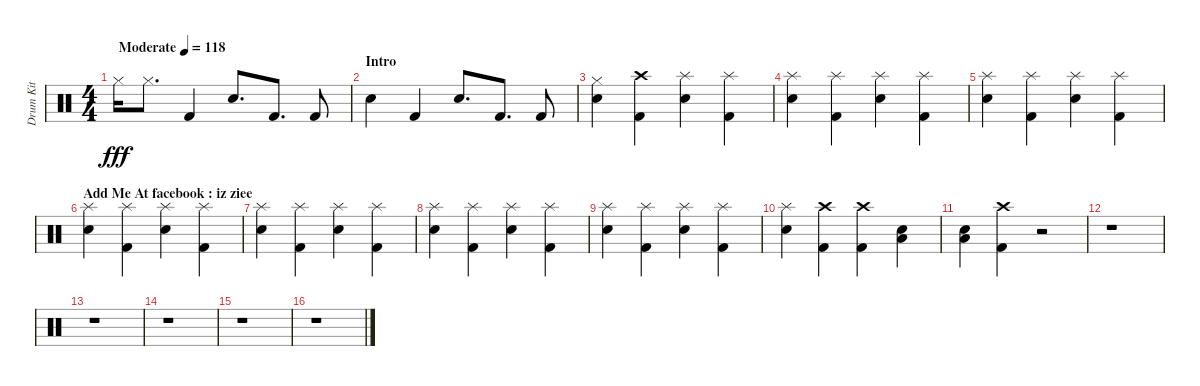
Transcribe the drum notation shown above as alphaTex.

\track ("Drum Kit" "Drum Kit") {instrument percussion}
\staff {score}
\articulation defaults
\ts (4 4)
\tempo (118 "Moderate")
\clef neutral
\ks c "Hi-Hat (closed)".16{dy fff} "Hi-Hat (closed)".8{d} "Kick (hit) 2".4 "Electric Snare (hit)".8{d} "Kick (hit) 2".8{d} "Kick (hit) 2".8
|
\section ("" "Intro")
"Electric Snare (hit)".4 "Kick (hit) 2".4 "Electric Snare (hit)".8{d} "Kick (hit) 2".8{d} "Kick (hit) 2".8 |
("Hi-Hat (closed)" "Electric Snare (hit)").4 ("Kick (hit) 2" "Crash high (hit)").4 ("Splash (hit)" "Electric Snare (hit)").4 ("Kick (hit) 2" "Splash (hit)").4 |
("Electric Snare (hit)" "Splash (hit)").4 ("Kick (hit) 2" "Splash (hit)").4 ("Electric Snare (hit)" "Splash (hit)").4 ("Splash (hit)" "Kick (hit) 2").4 |
("Splash (hit)" "Electric Snare (hit)").4 ("Kick (hit) 2" "Splash (hit)").4 ("Electric Snare (hit)" "Splash (hit)").4 ("Kick (hit) 2" "Splash (hit)").4 |
\section ("" "Add Me At facebook : iz ziee")
("Splash (hit)" "Electric Snare (hit)").4 ("Splash (hit)" "Kick (hit) 2").4 ("Splash (hit)" "Electric Snare (hit)").4 ("Kick (hit) 2" "Splash (hit)").4 |
("Electric Snare (hit)" "Splash (hit)").4 ("Kick (hit) 2" "Splash (hit)").4 ("Electric Snare (hit)" "Splash (hit)").4 ("Splash (hit)" "Kick (hit) 2").4 |
("Splash (hit)" "Electric Snare (hit)").4 ("Splash (hit)" "Kick (hit) 2").4 ("Splash (hit)" "Electric Snare (hit)").4 ("Kick (hit) 2" "Splash (hit)").4 |
("Splash (hit)" "Electric Snare (hit)").4 ("Splash (hit)" "Kick (hit) 2").4 ("Electric Snare (hit)" "Splash (hit)").4 ("Kick (hit) 2" "Splash (hit)").4 |
("Electric Snare (hit)" "Splash (hit)").4 ("Kick (hit) 2" "Crash high (hit)").4 ("Crash high (hit)" "Kick (hit) 2").4 ("Electric Snare (hit)" "Low Floor Tom (hit)").4 |
("Electric Snare (hit)" "Low Floor Tom (hit)").4 ("Kick (hit) 2" "Crash high (hit)").4 r.2 |
r.1 |
r.1 |
r.1 |
r.1 |
r.1
